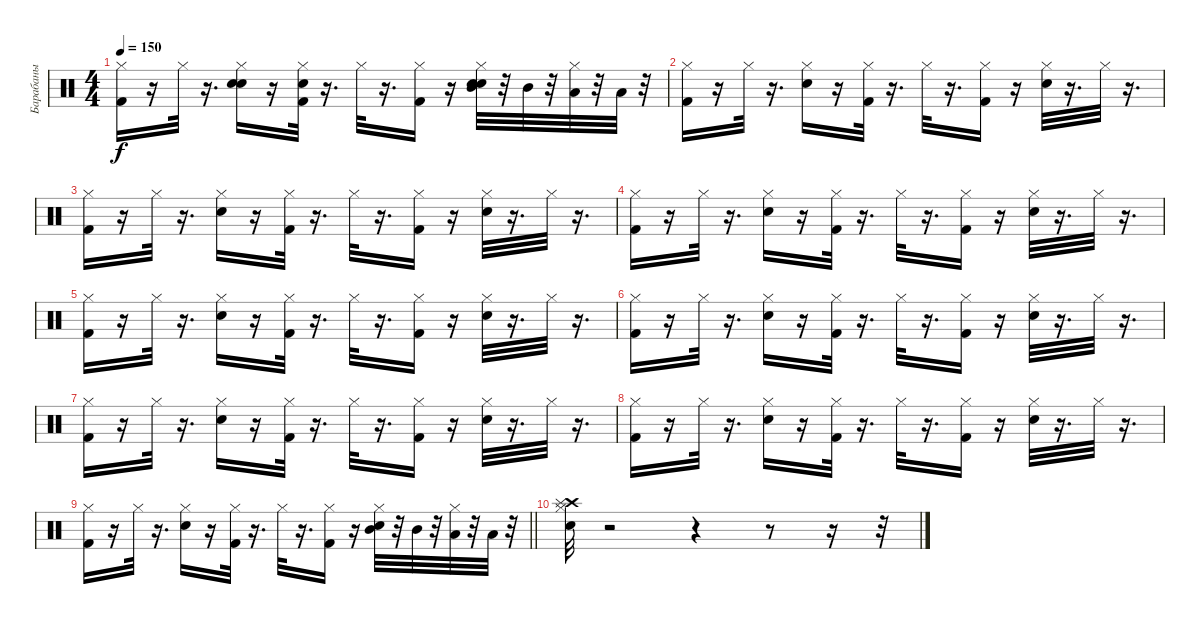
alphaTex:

\track ("Барабаны" "Барабаны") {instrument percussion}
\staff {score}
\articulation defaults
\ts (4 4)
\tempo 150
\clef neutral
\ks c
("Kick (hit) 2" "Hi-Hat (closed)").16{dy f} r.16 "Hi-Hat (closed)".32 r.16{d} ("Electric Snare (hit)" "Hi-Hat (closed)" "Hand Clap (hit)").16 r.16 ("Kick (hit) 2" "Hi-Hat (closed)" "Hand Clap (hit)").32 r.16{d} "Hi-Hat (closed)".32 r.16{d} ("Kick (hit) 2" "Hi-Hat (closed)").16 r.16 ("Electric Snare (hit)" "Hand Clap (hit)" "Mid Tom (hit)" "Hi-Hat (closed)").32 r.32 "Mid Tom (hit)".32 r.32 ("Low Tom (hit)" "Hi-Hat (closed)").32 r.32 "Low Tom (hit)".32 r.32 |
("Hi-Hat (closed)" "Kick (hit) 2").16 r.16 "Hi-Hat (closed)".32 r.16{d} ("Hi-Hat (closed)" "Electric Snare (hit)").16 r.16 ("Kick (hit) 2" "Hi-Hat (closed)").32 r.16{d} "Hi-Hat (closed)".32 r.16{d} ("Hi-Hat (closed)" "Kick (hit) 2").16 r.16 ("Electric Snare (hit)" "Hi-Hat (closed)").32 r.16{d} "Hi-Hat (closed)".32 r.16{d} |
("Kick (hit) 2" "Hi-Hat (closed)").16 r.16 "Hi-Hat (closed)".32 r.16{d} ("Electric Snare (hit)" "Hi-Hat (closed)").16 r.16 ("Kick (hit) 2" "Hi-Hat (closed)").32 r.16{d} "Hi-Hat (closed)".32 r.16{d} ("Kick (hit) 2" "Hi-Hat (closed)").16 r.16 ("Electric Snare (hit)" "Hi-Hat (closed)").32 r.16{d} "Hi-Hat (closed)".32 r.16{d} |
("Hi-Hat (closed)" "Kick (hit) 2").16 r.16 "Hi-Hat (closed)".32 r.16{d} ("Electric Snare (hit)" "Hi-Hat (closed)").16 r.16 ("Kick (hit) 2" "Hi-Hat (closed)").32 r.16{d} "Hi-Hat (closed)".32 r.16{d} ("Kick (hit) 2" "Hi-Hat (closed)").16 r.16 ("Electric Snare (hit)" "Hi-Hat (closed)").32 r.16{d} "Hi-Hat (closed)".32 r.16{d} |
("Kick (hit) 2" "Hi-Hat (closed)").16 r.16 "Hi-Hat (closed)".32 r.16{d} ("Electric Snare (hit)" "Hi-Hat (closed)").16 r.16 ("Kick (hit) 2" "Hi-Hat (closed)").32 r.16{d} "Hi-Hat (closed)".32 r.16{d} ("Kick (hit) 2" "Hi-Hat (closed)").16 r.16 ("Electric Snare (hit)" "Hi-Hat (closed)").32 r.16{d} "Hi-Hat (closed)".32 r.16{d} |
("Hi-Hat (closed)" "Kick (hit) 2").16 r.16 "Hi-Hat (closed)".32 r.16{d} ("Electric Snare (hit)" "Hi-Hat (closed)").16 r.16 ("Hi-Hat (closed)" "Kick (hit) 2").32 r.16{d} "Hi-Hat (closed)".32 r.16{d} ("Kick (hit) 2" "Hi-Hat (closed)").16 r.16 ("Electric Snare (hit)" "Hi-Hat (closed)").32 r.16{d} "Hi-Hat (closed)".32 r.16{d} |
("Kick (hit) 2" "Hi-Hat (closed)").16 r.16 "Hi-Hat (closed)".32 r.16{d} ("Electric Snare (hit)" "Hi-Hat (closed)").16 r.16 ("Kick (hit) 2" "Hi-Hat (closed)").32 r.16{d} "Hi-Hat (closed)".32 r.16{d} ("Kick (hit) 2" "Hi-Hat (closed)").16 r.16 ("Electric Snare (hit)" "Hi-Hat (closed)").32 r.16{d} "Hi-Hat (closed)".32 r.16{d} |
("Kick (hit) 2" "Hi-Hat (closed)").16 r.16 "Hi-Hat (closed)".32 r.16{d} ("Electric Snare (hit)" "Hi-Hat (closed)").16 r.16 ("Kick (hit) 2" "Hi-Hat (closed)").32 r.16{d} "Hi-Hat (closed)".32 r.16{d} ("Kick (hit) 2" "Hi-Hat (closed)").16 r.16 ("Electric Snare (hit)" "Hi-Hat (closed)").32 r.16{d} "Hi-Hat (closed)".32 r.16{d} |
\barLineRight lightlight
("Kick (hit) 2" "Hi-Hat (closed)").16 r.16 "Hi-Hat (closed)".32 r.16{d} ("Electric Snare (hit)" "Hi-Hat (closed)").16 r.16 ("Kick (hit) 2" "Hi-Hat (closed)").32 r.16{d} "Hi-Hat (closed)".32 r.16{d} ("Kick (hit) 2" "Hi-Hat (closed)").16 r.16 ("Electric Snare (hit)" "Mid Tom (hit)" "Hi-Hat (closed)").32 r.32 "Mid Tom (hit)".32 r.32 ("Low Tom (hit)" "Hi-Hat (closed)").32 r.32 "Low Tom (hit)".32 r.32 |
("Hi-Hat (closed)" "Crash high (hit)" "Splash (hit)" "Electric Snare (hit)").32 r.2 r.4 r.8 r.16 r.32
